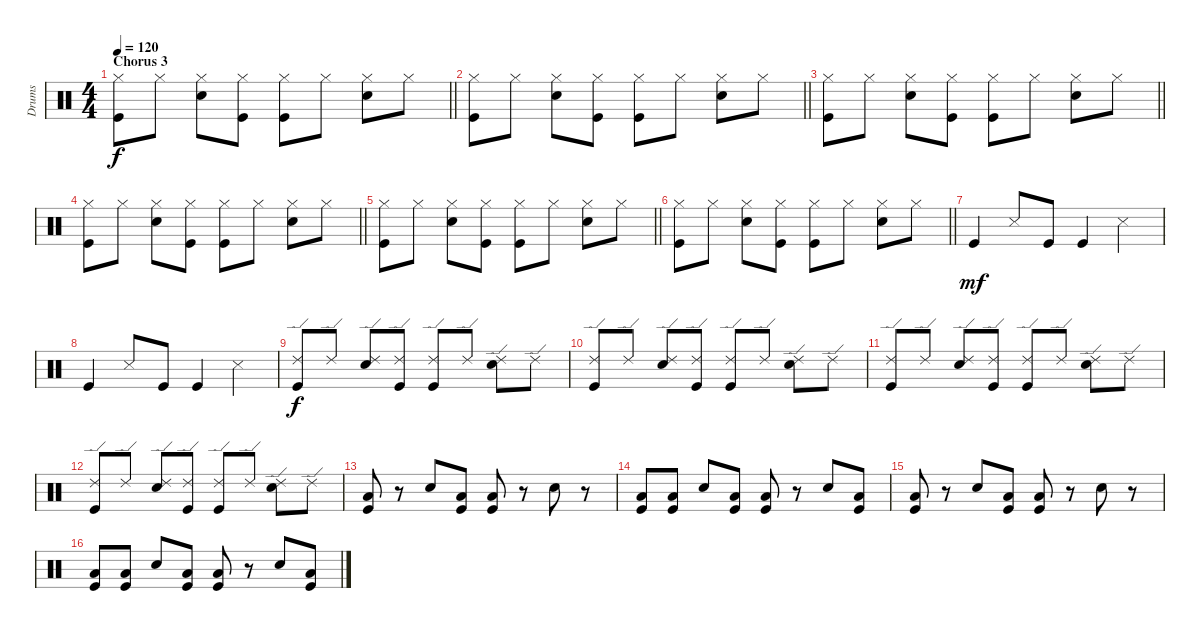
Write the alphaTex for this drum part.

\track ("Drums" "Drums") {instrument percussion}
\staff
\articulation defaults
\ts (4 4)
\section ("" "Chorus 3")
\tempo 120
\clef neutral
\barLineRight lightlight
\ks c
("Hi-Hat (closed)" "Kick (hit)").8{dy f} "Hi-Hat (closed)".8 ("Hi-Hat (closed)" "Snare (hit) 2").8 ("Hi-Hat (closed)" "Kick (hit)").8 ("Hi-Hat (closed)" "Kick (hit)").8 "Hi-Hat (closed)".8 ("Hi-Hat (closed)" "Snare (hit) 2").8 "Hi-Hat (closed)".8 |
\barLineRight lightlight
("Hi-Hat (closed)" "Kick (hit)").8 "Hi-Hat (closed)".8 ("Hi-Hat (closed)" "Snare (hit) 2").8 ("Hi-Hat (closed)" "Kick (hit)").8 ("Hi-Hat (closed)" "Kick (hit)").8 "Hi-Hat (closed)".8 ("Hi-Hat (closed)" "Snare (hit) 2").8 "Hi-Hat (closed)".8 |
\barLineRight lightlight
("Hi-Hat (closed)" "Kick (hit)").8 "Hi-Hat (closed)".8 ("Hi-Hat (closed)" "Snare (hit) 2").8 ("Hi-Hat (closed)" "Kick (hit)").8 ("Hi-Hat (closed)" "Kick (hit)").8 "Hi-Hat (closed)".8 ("Hi-Hat (closed)" "Snare (hit) 2").8 "Hi-Hat (closed)".8 |
\barLineRight lightlight
("Hi-Hat (closed)" "Kick (hit)").8 "Hi-Hat (closed)".8 ("Hi-Hat (closed)" "Snare (hit) 2").8 ("Hi-Hat (closed)" "Kick (hit)").8 ("Hi-Hat (closed)" "Kick (hit)").8 "Hi-Hat (closed)".8 ("Hi-Hat (closed)" "Snare (hit) 2").8 "Hi-Hat (closed)".8 |
\barLineRight lightlight
("Hi-Hat (closed)" "Kick (hit)").8 "Hi-Hat (closed)".8 ("Hi-Hat (closed)" "Snare (hit) 2").8 ("Hi-Hat (closed)" "Kick (hit)").8 ("Hi-Hat (closed)" "Kick (hit)").8 "Hi-Hat (closed)".8 ("Hi-Hat (closed)" "Snare (hit) 2").8 "Hi-Hat (closed)".8 |
\barLineRight lightlight
("Hi-Hat (closed)" "Kick (hit)").8 "Hi-Hat (closed)".8 ("Hi-Hat (closed)" "Snare (hit) 2").8 ("Hi-Hat (closed)" "Kick (hit)").8 ("Hi-Hat (closed)" "Kick (hit)").8 "Hi-Hat (closed)".8 ("Hi-Hat (closed)" "Snare (hit) 2").8 "Hi-Hat (closed)".8 |
"Kick (hit)".4{dy mf} "Snare (side stick) 3".8 "Kick (hit)".8 "Kick (hit)".4 "Snare (side stick) 3".4 |
"Kick (hit)".4 "Snare (side stick) 3".8 "Kick (hit)".8 "Kick (hit)".4 "Snare (side stick) 3".4 |
("Ride (edge) 2" "Kick (hit)").8{dy f} "Ride (edge) 2".8 ("Ride (edge) 2" "Snare (hit) 2").8 ("Ride (edge) 2" "Kick (hit)").8 ("Ride (edge) 2" "Kick (hit)").8 "Ride (edge) 2".8 ("Ride (edge) 2" "Snare (hit) 2").8 "Ride (edge) 2".8 |
("Ride (edge) 2" "Kick (hit)").8 "Ride (edge) 2".8 ("Ride (edge) 2" "Snare (hit) 2").8 ("Ride (edge) 2" "Kick (hit)").8 ("Ride (edge) 2" "Kick (hit)").8 "Ride (edge) 2".8 ("Ride (edge) 2" "Snare (hit) 2").8 "Ride (edge) 2".8 |
("Ride (edge) 2" "Kick (hit)").8 "Ride (edge) 2".8 ("Ride (edge) 2" "Snare (hit) 2").8 ("Ride (edge) 2" "Kick (hit)").8 ("Ride (edge) 2" "Kick (hit)").8 "Ride (edge) 2".8 ("Ride (edge) 2" "Snare (hit) 2").8 "Ride (edge) 2".8 |
("Ride (edge) 2" "Kick (hit)").8 "Ride (edge) 2".8 ("Ride (edge) 2" "Snare (hit) 2").8 ("Ride (edge) 2" "Kick (hit)").8 ("Ride (edge) 2" "Kick (hit)").8 "Ride (edge) 2".8 ("Ride (edge) 2" "Snare (hit) 2").8 "Ride (edge) 2".8 |
("Kick (hit)" "Low Floor Tom (hit)").8 r.8 "Snare (hit) 2".8 ("Kick (hit)" "Low Floor Tom (hit)").8 ("Kick (hit)" "Low Floor Tom (hit)").8 r.8 "Snare (hit) 2".8 r.8 |
("Kick (hit)" "Low Floor Tom (hit)").8 ("Kick (hit)" "Low Floor Tom (hit)").8 "Snare (hit) 2".8 ("Kick (hit)" "Low Floor Tom (hit)").8 ("Kick (hit)" "Low Floor Tom (hit)").8 r.8 "Snare (hit) 2".8 ("Kick (hit)" "Low Floor Tom (hit)").8 |
("Kick (hit)" "Low Floor Tom (hit)").8 r.8 "Snare (hit) 2".8 ("Kick (hit)" "Low Floor Tom (hit)").8 ("Kick (hit)" "Low Floor Tom (hit)").8 r.8 "Snare (hit) 2".8 r.8 |
("Kick (hit)" "Low Floor Tom (hit)").8 ("Kick (hit)" "Low Floor Tom (hit)").8 "Snare (hit) 2".8 ("Kick (hit)" "Low Floor Tom (hit)").8 ("Kick (hit)" "Low Floor Tom (hit)").8 r.8 "Snare (hit) 2".8 ("Kick (hit)" "Low Floor Tom (hit)").8
